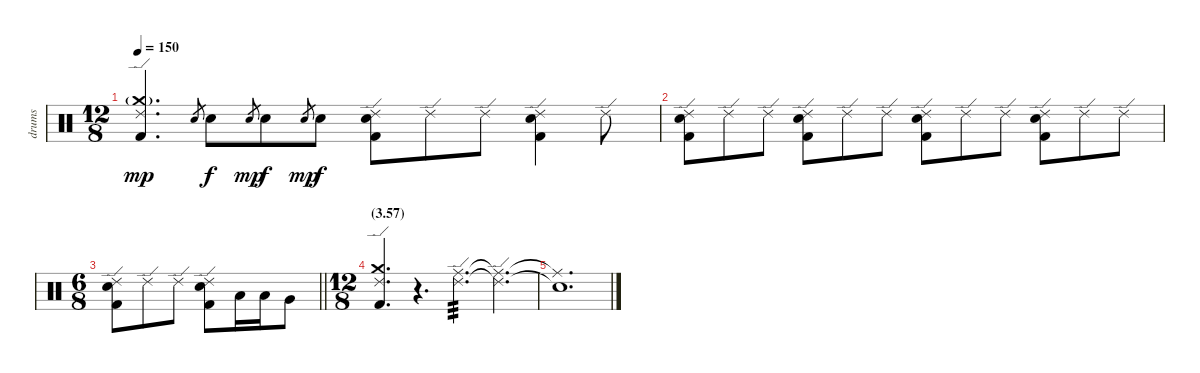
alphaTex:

\track ("drums" "drums") {instrument percussion}
\staff {score}
\articulation defaults
\ts (12 8)
\tempo 150
\clef neutral
\ks c
("Ride (edge) 2" "Crash medium (hit)"{g} "Kick (hit) 2").4{d dy mp} "Electric Snare (hit)".8{gr} "Electric Snare (hit)".8{dy f} "Electric Snare (hit)".8{gr dy mp} "Electric Snare (hit)".8{dy f} "Electric Snare (hit)".8{gr dy mp} "Electric Snare (hit)".8{dy f} ("Ride (edge) 2" "Electric Snare (hit)" "Kick (hit) 2").8 "Ride (edge) 2".8 "Ride (edge) 2".8 ("Ride (edge) 2" "Electric Snare (hit)" "Kick (hit) 2").4 "Ride (edge) 2".8 |
("Ride (edge) 2" "Electric Snare (hit)" "Kick (hit) 2").8 "Ride (edge) 2".8 "Ride (edge) 2".8 ("Ride (edge) 2" "Electric Snare (hit)" "Kick (hit) 2").8 "Ride (edge) 2".8 "Ride (edge) 2".8 ("Ride (edge) 2" "Electric Snare (hit)" "Kick (hit) 2").8 "Ride (edge) 2".8 "Ride (edge) 2".8 ("Ride (edge) 2" "Electric Snare (hit)" "Kick (hit) 2").8 "Ride (edge) 2".8 "Ride (edge) 2".8 |
\ts (6 8)
\barLineRight lightlight
("Ride (edge) 2" "Electric Snare (hit)" "Kick (hit) 2").8 "Ride (edge) 2".8 "Ride (edge) 2".8 ("Ride (edge) 2" "Electric Snare (hit)" "Kick (hit) 2").8 "Low Tom (hit)".16 "Low Tom (hit)".16 "Very Low Tom (hit)".8 |
\ts (12 8)
\section ("" "(3.57)")
("Ride (edge) 2" "Crash medium (hit)" "Kick (hit) 2").4{d} r.4{d} ("Ride (edge) 2" "Ride (middle)").4{d tp 3 volume 4} ("Ride (edge) 2"{t} "Ride (middle)"{t}).4{d} |
("Snare (hit)"{t} "Ride (middle)"{t}).1{d}
